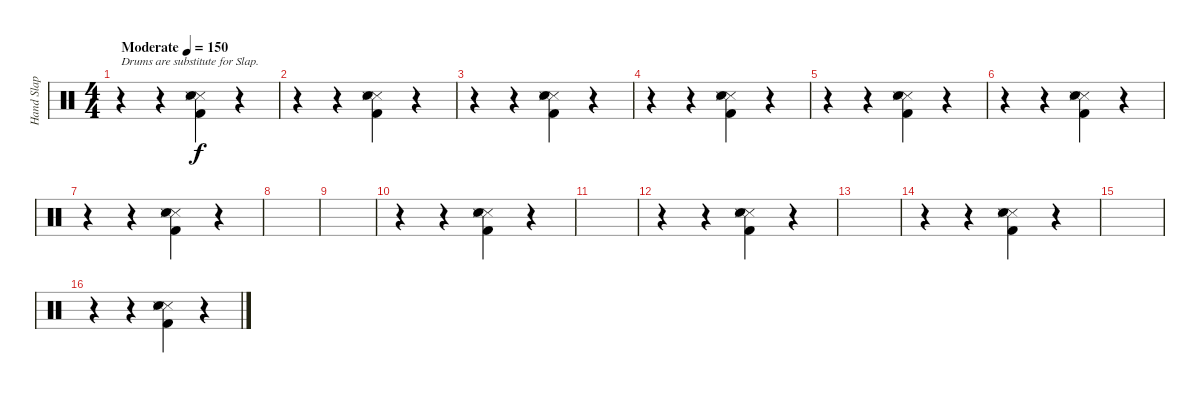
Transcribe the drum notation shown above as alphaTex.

\track ("Hand Slap" "Hand Slap") {instrument percussion}
\staff {score}
\articulation defaults
\ts (4 4)
\tempo (150 "Moderate")
\clef neutral
\ks c
r.4{txt "Drums are substitute for Slap." dy f} r.4 ("Snare (side stick) 3" "Kick (hit) 2" "Metronome (hit)" "Hand Clap (hit)").4 r.4 |
r.4 r.4 ("Snare (side stick) 3" "Kick (hit) 2" "Metronome (hit)" "Hand Clap (hit)").4 r.4 |
r.4 r.4 ("Snare (side stick) 3" "Kick (hit) 2" "Metronome (hit)" "Hand Clap (hit)").4 r.4 |
r.4 r.4 ("Snare (side stick) 3" "Kick (hit) 2" "Metronome (hit)" "Hand Clap (hit)").4 r.4 |
r.4 r.4 ("Snare (side stick) 3" "Kick (hit) 2" "Metronome (hit)" "Hand Clap (hit)").4 r.4 |
r.4 r.4 ("Snare (side stick) 3" "Kick (hit) 2" "Metronome (hit)" "Hand Clap (hit)").4 r.4 |
r.4 r.4 ("Snare (side stick) 3" "Kick (hit) 2" "Metronome (hit)" "Hand Clap (hit)").4 r.4 |
|
|
r.4 r.4 ("Snare (side stick) 3" "Kick (hit) 2" "Metronome (hit)" "Hand Clap (hit)").4 r.4 |
|
r.4 r.4 ("Snare (side stick) 3" "Kick (hit) 2" "Metronome (hit)" "Hand Clap (hit)").4 r.4 |
|
r.4 r.4 ("Snare (side stick) 3" "Kick (hit) 2" "Metronome (hit)" "Hand Clap (hit)").4 r.4 |
|
r.4 r.4 ("Snare (side stick) 3" "Kick (hit) 2" "Metronome (hit)" "Hand Clap (hit)").4 r.4
